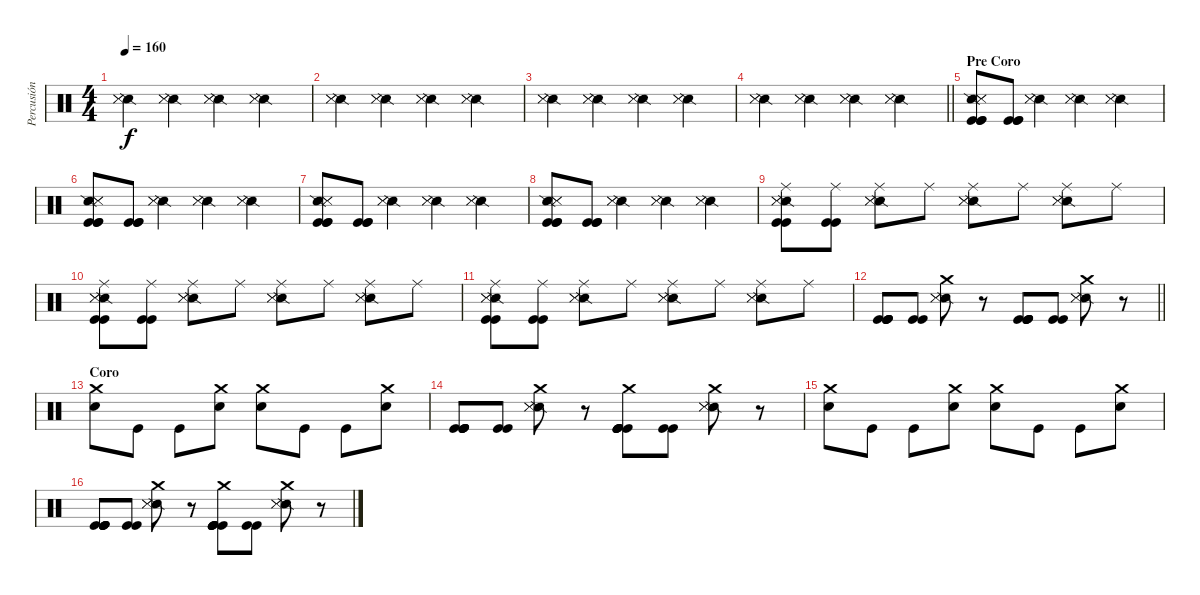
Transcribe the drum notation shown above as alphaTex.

\track ("Percusión" "Percusión") {instrument percussion}
\staff {score}
\articulation defaults
\ts (4 4)
\tempo 160
\clef neutral
\ks c
("Snare (side stick) 2" "Metronome (hit)" "Metronome (hit)").4{dy f} ("Snare (side stick) 2" "Metronome (hit)" "Metronome (hit)").4 ("Snare (side stick) 2" "Metronome (hit)" "Metronome (hit)").4 ("Snare (side stick) 2" "Metronome (hit)" "Metronome (hit)").4 |
("Snare (side stick) 2" "Metronome (hit)" "Metronome (hit)").4 ("Snare (side stick) 2" "Metronome (hit)" "Metronome (hit)").4 ("Snare (side stick) 2" "Metronome (hit)" "Metronome (hit)").4 ("Snare (side stick) 2" "Metronome (hit)" "Metronome (hit)").4 |
("Snare (side stick) 2" "Metronome (hit)" "Metronome (hit)").4 ("Snare (side stick) 2" "Metronome (hit)" "Metronome (hit)").4 ("Snare (side stick) 2" "Metronome (hit)" "Metronome (hit)").4 ("Snare (side stick) 2" "Metronome (hit)" "Metronome (hit)").4 |
\barLineRight lightlight
("Snare (side stick) 2" "Metronome (hit)" "Metronome (hit)").4 ("Snare (side stick) 2" "Metronome (hit)" "Metronome (hit)").4 ("Snare (side stick) 2" "Metronome (hit)" "Metronome (hit)").4 ("Snare (side stick) 2" "Metronome (hit)" "Metronome (hit)").4 |
\section ("" "Pre Coro")
("Kick (hit)" "Kick (hit)" "Snare (side stick) 2" "Metronome (hit)" "Metronome (hit)" "Kick (hit)").8 ("Kick (hit)" "Kick (hit)" "Kick (hit)").8 ("Snare (side stick) 2" "Metronome (hit)" "Metronome (hit)").4 ("Snare (side stick) 2" "Metronome (hit)" "Metronome (hit)").4 ("Snare (side stick) 2" "Metronome (hit)" "Metronome (hit)").4 |
("Kick (hit)" "Kick (hit)" "Snare (side stick) 2" "Metronome (hit)" "Metronome (hit)" "Kick (hit)").8 ("Kick (hit)" "Kick (hit)" "Kick (hit)").8 ("Snare (side stick) 2" "Metronome (hit)" "Metronome (hit)").4 ("Snare (side stick) 2" "Metronome (hit)" "Metronome (hit)").4 ("Snare (side stick) 2" "Metronome (hit)" "Metronome (hit)").4 |
("Kick (hit)" "Kick (hit)" "Snare (side stick) 2" "Metronome (hit)" "Metronome (hit)" "Kick (hit)").8 ("Kick (hit)" "Kick (hit)" "Kick (hit)").8 ("Snare (side stick) 2" "Metronome (hit)" "Metronome (hit)").4 ("Snare (side stick) 2" "Metronome (hit)" "Metronome (hit)").4 ("Snare (side stick) 2" "Metronome (hit)" "Metronome (hit)").4 |
("Kick (hit)" "Kick (hit)" "Snare (side stick) 2" "Metronome (hit)" "Metronome (hit)" "Kick (hit)").8 ("Kick (hit)" "Kick (hit)" "Kick (hit)").8 ("Snare (side stick) 2" "Metronome (hit)" "Metronome (hit)").4 ("Snare (side stick) 2" "Metronome (hit)" "Metronome (hit)").4 ("Snare (side stick) 2" "Metronome (hit)" "Metronome (hit)").4 |
("Ride (middle)" "Kick (hit)" "Snare (side stick) 2" "Metronome (hit)" "Metronome (hit)" "Kick (hit)").8 ("Ride (middle)" "Kick (hit)" "Kick (hit)").8 ("Ride (middle)" "Snare (side stick) 2" "Metronome (hit)" "Metronome (hit)").8 "Ride (middle)".8 ("Ride (middle)" "Snare (side stick) 2" "Metronome (hit)" "Metronome (hit)").8 "Ride (middle)".8 ("Ride (middle)" "Snare (side stick) 2" "Metronome (hit)" "Metronome (hit)").8 "Ride (middle)".8 |
("Ride (middle)" "Kick (hit)" "Snare (side stick) 2" "Metronome (hit)" "Metronome (hit)" "Kick (hit)").8 ("Ride (middle)" "Kick (hit)" "Kick (hit)").8 ("Ride (middle)" "Snare (side stick) 2" "Metronome (hit)" "Metronome (hit)").8 "Ride (middle)".8 ("Ride (middle)" "Snare (side stick) 2" "Metronome (hit)" "Metronome (hit)").8 "Ride (middle)".8 ("Ride (middle)" "Snare (side stick) 2" "Metronome (hit)" "Metronome (hit)").8 "Ride (middle)".8 |
("Ride (middle)" "Kick (hit)" "Snare (side stick) 2" "Metronome (hit)" "Metronome (hit)" "Kick (hit)").8 ("Ride (middle)" "Kick (hit)" "Kick (hit)").8 ("Ride (middle)" "Snare (side stick) 2" "Metronome (hit)" "Metronome (hit)").8 "Ride (middle)".8 ("Ride (middle)" "Snare (side stick) 2" "Metronome (hit)" "Metronome (hit)").8 "Ride (middle)".8 ("Ride (middle)" "Snare (side stick) 2" "Metronome (hit)" "Metronome (hit)").8 "Ride (middle)".8 |
\barLineRight lightlight
("Kick (hit)" "Kick (hit)" "Kick (hit)" "Kick (hit)" "Kick (hit)").8 ("Kick (hit)" "Kick (hit)").8 ("Crash medium (hit)" "Snare (side stick) 2" "Metronome (hit)" "Metronome (hit)").8 r.8 ("Kick (hit)" "Kick (hit)" "Kick (hit)" "Kick (hit)" "Kick (hit)").8 ("Kick (hit)" "Kick (hit)").8 ("Crash medium (hit)" "Snare (side stick) 2" "Metronome (hit)" "Metronome (hit)").8 r.8 |
\section ("" "Coro")
("Crash medium (hit)" "Electric Snare (hit)").8 "Kick (hit)".8 "Kick (hit)".8 ("Crash medium (hit)" "Electric Snare (hit)").8 ("Crash medium (hit)" "Electric Snare (hit)").8 "Kick (hit)".8 "Kick (hit)".8 ("Crash medium (hit)" "Electric Snare (hit)").8 |
("Kick (hit)" "Kick (hit)" "Kick (hit)" "Kick (hit)" "Kick (hit)").8 ("Kick (hit)" "Kick (hit)").8 ("Crash medium (hit)" "Snare (side stick) 2" "Metronome (hit)" "Metronome (hit)").8 r.8 ("Crash medium (hit)" "Kick (hit)" "Kick (hit)" "Kick (hit)" "Kick (hit)" "Kick (hit)").8 ("Kick (hit)" "Kick (hit)").8 ("Crash medium (hit)" "Snare (side stick) 2" "Metronome (hit)" "Metronome (hit)").8 r.8 |
("Crash medium (hit)" "Electric Snare (hit)").8 "Kick (hit)".8 "Kick (hit)".8 ("Crash medium (hit)" "Electric Snare (hit)").8 ("Crash medium (hit)" "Electric Snare (hit)").8 "Kick (hit)".8 "Kick (hit)".8 ("Crash medium (hit)" "Electric Snare (hit)").8 |
("Kick (hit)" "Kick (hit)" "Kick (hit)" "Kick (hit)" "Kick (hit)").8 ("Kick (hit)" "Kick (hit)").8 ("Crash medium (hit)" "Snare (side stick) 2" "Metronome (hit)" "Metronome (hit)").8 r.8 ("Crash medium (hit)" "Kick (hit)" "Kick (hit)" "Kick (hit)" "Kick (hit)" "Kick (hit)").8 ("Kick (hit)" "Kick (hit)").8 ("Crash medium (hit)" "Snare (side stick) 2" "Metronome (hit)" "Metronome (hit)").8 r.8
